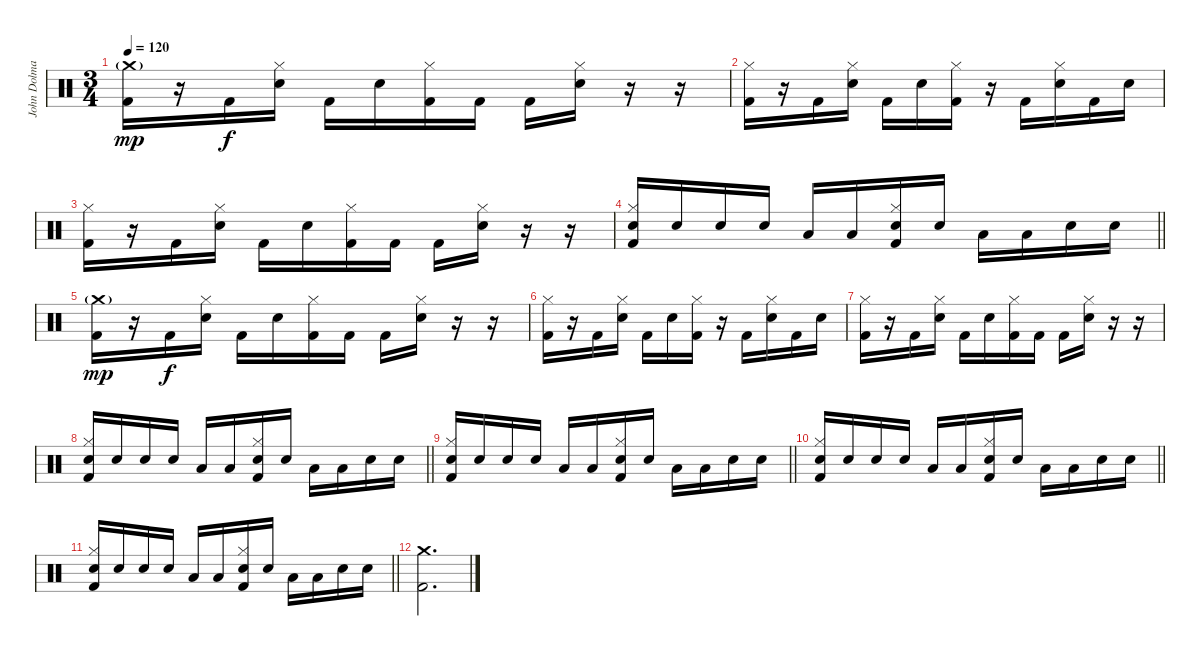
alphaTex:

\track ("John Dolmayan" "John Dolma") {instrument percussion}
\staff {score}
\articulation defaults
\ts (3 4)
\tempo 120
\clef neutral
\ks c
("Crash medium (hit)"{g} "Kick (hit) 2").16{dy mp} r.16 "Kick (hit) 2".16{dy f} ("Hi-Hat (closed)" "Electric Snare (hit)").16 "Kick (hit) 2".16 "Electric Snare (hit)".16 ("Hi-Hat (closed)" "Kick (hit) 2").16 "Kick (hit) 2".16 "Kick (hit) 2".16 ("Hi-Hat (closed)" "Electric Snare (hit)").16 r.16 r.16 |
("Hi-Hat (closed)" "Kick (hit) 2").16 r.16 "Kick (hit) 2".16 ("Hi-Hat (closed)" "Electric Snare (hit)").16 "Kick (hit) 2".16 "Electric Snare (hit)".16 ("Hi-Hat (closed)" "Kick (hit) 2").16 r.16 "Kick (hit) 2".16 ("Hi-Hat (closed)" "Electric Snare (hit)").16 "Kick (hit) 2".16 "Electric Snare (hit)".16 |
("Hi-Hat (closed)" "Kick (hit) 2").16 r.16 "Kick (hit) 2".16 ("Hi-Hat (closed)" "Electric Snare (hit)").16 "Kick (hit) 2".16 "Electric Snare (hit)".16 ("Hi-Hat (closed)" "Kick (hit) 2").16 "Kick (hit) 2".16 "Kick (hit) 2".16 ("Hi-Hat (closed)" "Electric Snare (hit)").16 r.16 r.16 |
\barLineRight lightlight
("Hi-Hat (closed)" "Electric Snare (hit)" "Kick (hit) 2").16 "Electric Snare (hit)".16 "Electric Snare (hit)".16 "Electric Snare (hit)".16 "Low Tom (hit)".16 "Low Tom (hit)".16 ("Hi-Hat (closed)" "Electric Snare (hit)" "Kick (hit) 2").16 "Electric Snare (hit)".16 "Low Tom (hit)".16 "Low Tom (hit)".16 "Electric Snare (hit)".16 "Electric Snare (hit)".16 |
("Crash medium (hit)"{g} "Kick (hit) 2").16{dy mp} r.16 "Kick (hit) 2".16{dy f} ("Hi-Hat (closed)" "Electric Snare (hit)").16 "Kick (hit) 2".16 "Electric Snare (hit)".16 ("Hi-Hat (closed)" "Kick (hit) 2").16 "Kick (hit) 2".16 "Kick (hit) 2".16 ("Hi-Hat (closed)" "Electric Snare (hit)").16 r.16 r.16 |
("Hi-Hat (closed)" "Kick (hit) 2").16 r.16 "Kick (hit) 2".16 ("Hi-Hat (closed)" "Electric Snare (hit)").16 "Kick (hit) 2".16 "Electric Snare (hit)".16 ("Hi-Hat (closed)" "Kick (hit) 2").16 r.16 "Kick (hit) 2".16 ("Hi-Hat (closed)" "Electric Snare (hit)").16 "Kick (hit) 2".16 "Electric Snare (hit)".16 |
("Hi-Hat (closed)" "Kick (hit) 2").16 r.16 "Kick (hit) 2".16 ("Hi-Hat (closed)" "Electric Snare (hit)").16 "Kick (hit) 2".16 "Electric Snare (hit)".16 ("Hi-Hat (closed)" "Kick (hit) 2").16 "Kick (hit) 2".16 "Kick (hit) 2".16 ("Hi-Hat (closed)" "Electric Snare (hit)").16 r.16 r.16 |
\barLineRight lightlight
("Hi-Hat (closed)" "Electric Snare (hit)" "Kick (hit) 2").16 "Electric Snare (hit)".16 "Electric Snare (hit)".16 "Electric Snare (hit)".16 "Low Tom (hit)".16 "Low Tom (hit)".16 ("Hi-Hat (closed)" "Electric Snare (hit)" "Kick (hit) 2").16 "Electric Snare (hit)".16 "Low Tom (hit)".16 "Low Tom (hit)".16 "Electric Snare (hit)".16 "Electric Snare (hit)".16 |
\barLineRight lightlight
("Hi-Hat (closed)" "Electric Snare (hit)" "Kick (hit) 2").16 "Electric Snare (hit)".16 "Electric Snare (hit)".16 "Electric Snare (hit)".16 "Low Tom (hit)".16 "Low Tom (hit)".16 ("Hi-Hat (closed)" "Electric Snare (hit)" "Kick (hit) 2").16 "Electric Snare (hit)".16 "Low Tom (hit)".16 "Low Tom (hit)".16 "Electric Snare (hit)".16 "Electric Snare (hit)".16 |
\barLineRight lightlight
("Hi-Hat (closed)" "Electric Snare (hit)" "Kick (hit) 2").16 "Electric Snare (hit)".16 "Electric Snare (hit)".16 "Electric Snare (hit)".16 "Low Tom (hit)".16 "Low Tom (hit)".16 ("Hi-Hat (closed)" "Electric Snare (hit)" "Kick (hit) 2").16 "Electric Snare (hit)".16 "Low Tom (hit)".16 "Low Tom (hit)".16 "Electric Snare (hit)".16 "Electric Snare (hit)".16 |
\barLineRight lightlight
("Hi-Hat (closed)" "Electric Snare (hit)" "Kick (hit) 2").16 "Electric Snare (hit)".16 "Electric Snare (hit)".16 "Electric Snare (hit)".16 "Low Tom (hit)".16 "Low Tom (hit)".16 ("Hi-Hat (closed)" "Electric Snare (hit)" "Kick (hit) 2").16 "Electric Snare (hit)".16 "Low Tom (hit)".16 "Low Tom (hit)".16 "Electric Snare (hit)".16 "Electric Snare (hit)".16 |
("Crash medium (hit)" "Kick (hit) 2").2{d}
